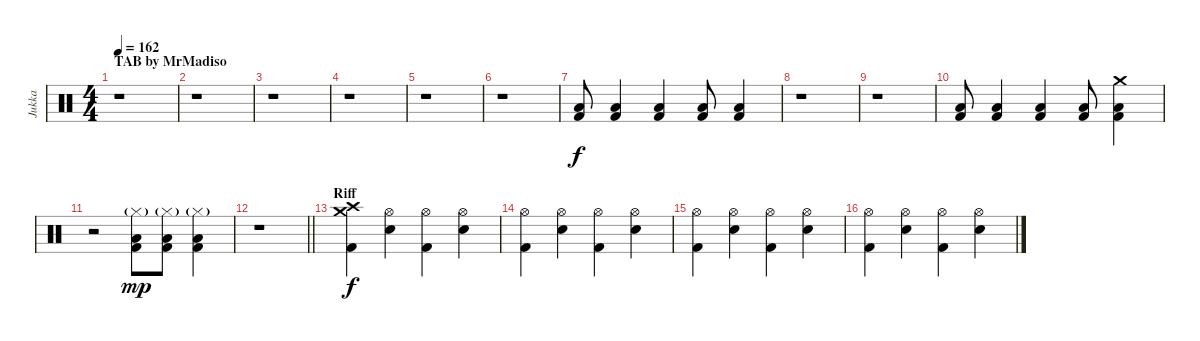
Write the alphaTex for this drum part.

\track ("Jukka" "Jukka") {instrument percussion}
\staff {score}
\articulation defaults
\ts (4 4)
\section ("" "TAB by MrMadiso")
\tempo 162
\clef neutral
\ks c
r.1{dy f} |
r.1 |
r.1 |
r.1 |
r.1 |
r.1 |
("Low Floor Tom (hit)" "Kick (hit) 2").8 ("Low Floor Tom (hit)" "Kick (hit) 2").4 ("Low Floor Tom (hit)" "Kick (hit) 2").4 ("Low Floor Tom (hit)" "Kick (hit) 2").8 ("Low Floor Tom (hit)" "Kick (hit) 2").4 |
r.1 |
r.1 |
("Low Floor Tom (hit)" "Kick (hit) 2").8 ("Low Floor Tom (hit)" "Kick (hit) 2").4 ("Low Floor Tom (hit)" "Kick (hit) 2").4 ("Low Floor Tom (hit)" "Kick (hit) 2").8 ("Crash medium (hit)" "Low Floor Tom (hit)" "Kick (hit) 2").4 |
r.2 ("Hi-Hat (closed)"{g} "Low Floor Tom (hit)" "Kick (hit) 2").8{dy mp} ("Hi-Hat (closed)"{g} "Low Floor Tom (hit)" "Kick (hit) 2").8 ("Hi-Hat (closed)"{g} "Low Floor Tom (hit)" "Kick (hit) 2").4 |
\barLineRight lightlight
r.1 |
\section ("" "Riff")
("Crash medium (hit)" "Crash high (hit)" "Kick (hit) 2").4{dy f} ("Hi-Hat (open)" "Electric Snare (hit)").4 ("Hi-Hat (open)" "Kick (hit) 2").4 ("Hi-Hat (open)" "Electric Snare (hit)").4 |
("Hi-Hat (open)" "Kick (hit) 2").4 ("Hi-Hat (open)" "Electric Snare (hit)").4 ("Hi-Hat (open)" "Kick (hit) 2").4 ("Hi-Hat (open)" "Electric Snare (hit)").4 |
("Hi-Hat (open)" "Kick (hit) 2").4 ("Hi-Hat (open)" "Electric Snare (hit)").4 ("Hi-Hat (open)" "Kick (hit) 2").4 ("Hi-Hat (open)" "Electric Snare (hit)").4 |
("Hi-Hat (open)" "Kick (hit) 2").4 ("Hi-Hat (open)" "Electric Snare (hit)").4 ("Hi-Hat (open)" "Kick (hit) 2").4 ("Hi-Hat (open)" "Electric Snare (hit)").4
